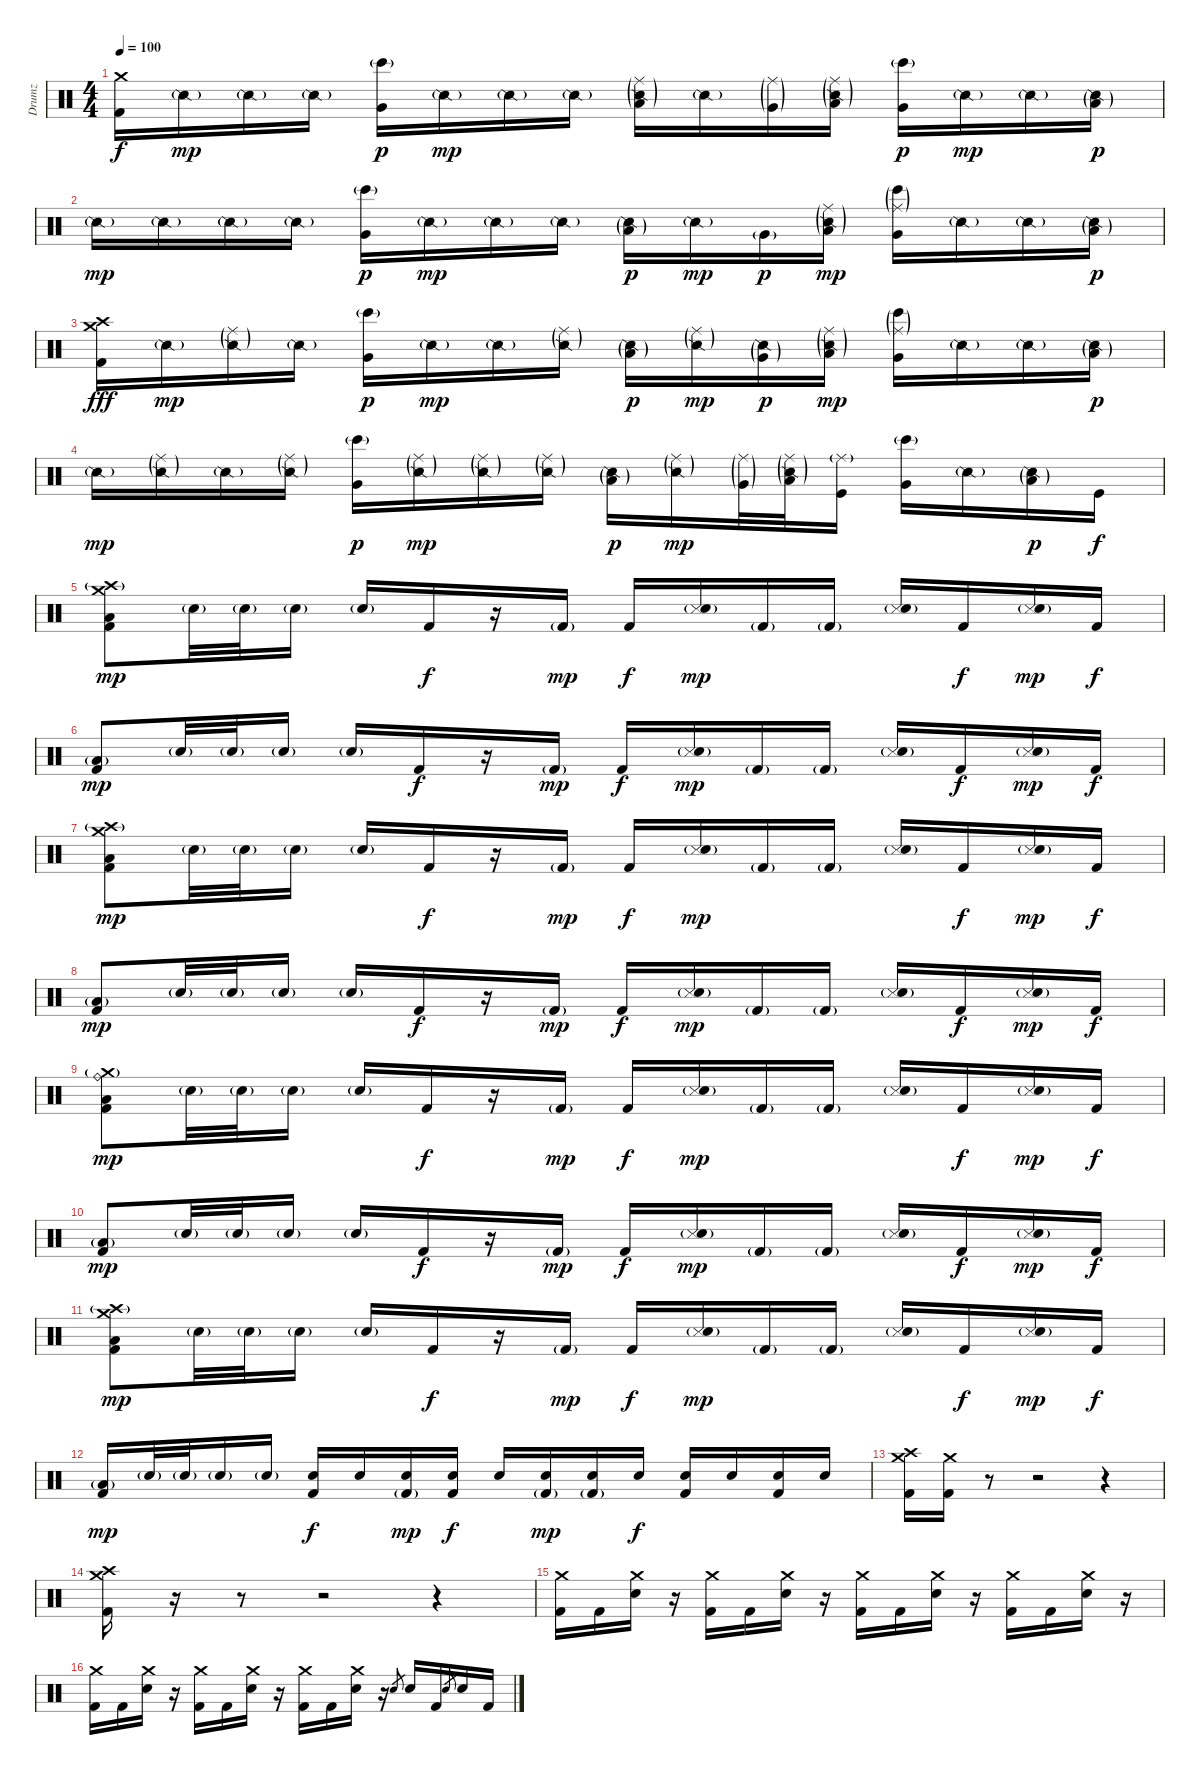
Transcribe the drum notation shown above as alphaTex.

\track ("Drumz" "Drumz") {instrument percussion}
\staff {score}
\articulation defaults
\ts (4 4)
\tempo 100
\clef neutral
\ks c
("Crash medium (hit)" "Kick (hit) 2").16{dy f} "Snare (side stick) 2"{g}.16{dy mp} "Snare (side stick) 2"{g}.16 "Snare (side stick) 2"{g}.16 ("Bongo High (hit)"{g} "Very Low Tom (hit)").16{dy p} "Snare (side stick) 2"{g}.16{dy mp} "Snare (side stick) 2"{g}.16 "Snare (side stick) 2"{g}.16 ("Snare (side stick) 2"{g} "Low Floor Tom (hit)"{g} "Ride (middle)"{g}).16 "Snare (side stick) 2"{g}.16 ("Very Low Tom (hit)"{g} "Ride (middle)"{g}).16 ("Snare (side stick) 2"{g} "Low Floor Tom (hit)"{g} "Ride (middle)"{g}).16 ("Bongo High (hit)"{g} "Very Low Tom (hit)").16{dy p} "Snare (side stick) 2"{g}.16{dy mp} "Snare (side stick) 2"{g}.16 ("Snare (side stick) 2"{g} "Low Floor Tom (hit)"{g}).16{dy p} |
"Snare (side stick) 2"{g}.16{dy mp} "Snare (side stick) 2"{g}.16 "Snare (side stick) 2"{g}.16 "Snare (side stick) 2"{g}.16 ("Bongo High (hit)"{g} "Very Low Tom (hit)").16{dy p} "Snare (side stick) 2"{g}.16{dy mp} "Snare (side stick) 2"{g}.16 "Snare (side stick) 2"{g}.16 ("Snare (side stick) 2"{g} "Low Floor Tom (hit)"{g}).16{dy p} "Snare (side stick) 2"{g}.16{dy mp} "Very Low Tom (hit)"{g}.16{dy p} ("Snare (side stick) 2"{g} "Low Floor Tom (hit)"{g} "Ride (middle)"{g}).16{dy mp} ("Bongo High (hit)"{g} "Very Low Tom (hit)" "Ride (middle)"{g}).16 "Snare (side stick) 2"{g}.16 "Snare (side stick) 2"{g}.16 ("Snare (side stick) 2"{g} "Low Floor Tom (hit)"{g}).16{dy p} |
("Crash medium (hit)" "Crash high (hit)" "Kick (hit) 2").16{dy fff} "Snare (side stick) 2"{g}.16{dy mp} ("Snare (side stick) 2"{g} "Ride (middle)"{g}).16 "Snare (side stick) 2"{g}.16 ("Bongo High (hit)"{g} "Very Low Tom (hit)").16{dy p} "Snare (side stick) 2"{g}.16{dy mp} "Snare (side stick) 2"{g}.16 ("Snare (side stick) 2"{g} "Ride (middle)"{g}).16 ("Snare (side stick) 2"{g} "Low Floor Tom (hit)"{g}).16{dy p} ("Snare (side stick) 2"{g} "Ride (middle)"{g}).16{dy mp} ("Snare (side stick) 2"{g} "Very Low Tom (hit)"{g}).16{dy p} ("Snare (side stick) 2"{g} "Low Floor Tom (hit)"{g} "Ride (middle)"{g}).16{dy mp} ("Bongo High (hit)"{g} "Very Low Tom (hit)" "Ride (middle)"{g}).16 "Snare (side stick) 2"{g}.16 "Snare (side stick) 2"{g}.16 ("Snare (side stick) 2"{g} "Low Floor Tom (hit)"{g}).16{dy p} |
"Snare (side stick) 2"{g}.16{dy mp} ("Snare (side stick) 2"{g} "Ride (middle)"{g}).16 "Snare (side stick) 2"{g}.16 ("Snare (side stick) 2"{g} "Ride (middle)"{g}).16 ("Bongo High (hit)"{g} "Very Low Tom (hit)").16{dy p} ("Snare (side stick) 2"{g} "Ride (middle)"{g}).16{dy mp} ("Snare (side stick) 2"{g} "Ride (middle)"{g}).16 ("Snare (side stick) 2"{g} "Ride (middle)"{g}).16 ("Snare (side stick) 2"{g} "Low Floor Tom (hit)"{g}).16{dy p} ("Snare (side stick) 2"{g} "Ride (middle)"{g}).16{dy mp} ("Very Low Tom (hit)"{g} "Ride (middle)"{g}).32 ("Snare (side stick) 2"{g} "Low Floor Tom (hit)"{g} "Ride (middle)"{g}).32 ("Kick (hit)" "Ride (middle)"{g}).16 ("Bongo High (hit)"{g} "Very Low Tom (hit)").16 "Snare (side stick) 2"{g}.16 ("Snare (side stick) 2"{g} "Low Floor Tom (hit)"{g}).16{dy p} "Kick (hit)".16{dy f} |
("Crash medium (hit)" "Crash high (hit)"{g} "Low Floor Tom (hit)" "Kick (hit) 2").8{dy mp} "Electric Snare (hit)"{g}.32 "Electric Snare (hit)"{g}.32 "Electric Snare (hit)"{g}.16 "Electric Snare (hit)"{g}.16 "Kick (hit) 2".16{dy f} r.16 "Kick (hit) 2"{g}.16{dy mp} "Kick (hit) 2".16{dy f} ("Metronome (hit)"{g} "Electric Snare (hit)"{g}).16{dy mp} "Kick (hit) 2"{g}.16 "Kick (hit) 2"{g}.16 ("Metronome (hit)"{g} "Electric Snare (hit)"{g}).16 "Kick (hit) 2".16{dy f} ("Metronome (hit)"{g} "Electric Snare (hit)"{g}).16{dy mp} "Kick (hit) 2".16{dy f} |
("Low Floor Tom (hit)"{g} "Kick (hit) 2").8{dy mp} "Electric Snare (hit)"{g}.32 "Electric Snare (hit)"{g}.32 "Electric Snare (hit)"{g}.16 "Electric Snare (hit)"{g}.16 "Kick (hit) 2".16{dy f} r.16 "Kick (hit) 2"{g}.16{dy mp} "Kick (hit) 2".16{dy f} ("Metronome (hit)"{g} "Electric Snare (hit)"{g}).16{dy mp} "Kick (hit) 2"{g}.16 "Kick (hit) 2"{g}.16 ("Metronome (hit)"{g} "Electric Snare (hit)"{g}).16 "Kick (hit) 2".16{dy f} ("Metronome (hit)"{g} "Electric Snare (hit)"{g}).16{dy mp} "Kick (hit) 2".16{dy f} |
("Crash medium (hit)" "Crash high (hit)"{g} "Low Floor Tom (hit)" "Kick (hit) 2").8{dy mp} "Electric Snare (hit)"{g}.32 "Electric Snare (hit)"{g}.32 "Electric Snare (hit)"{g}.16 "Electric Snare (hit)"{g}.16 "Kick (hit) 2".16{dy f} r.16 "Kick (hit) 2"{g}.16{dy mp} "Kick (hit) 2".16{dy f} ("Metronome (hit)"{g} "Electric Snare (hit)"{g}).16{dy mp} "Kick (hit) 2"{g}.16 "Kick (hit) 2"{g}.16 ("Metronome (hit)"{g} "Electric Snare (hit)"{g}).16 "Kick (hit) 2".16{dy f} ("Metronome (hit)"{g} "Electric Snare (hit)"{g}).16{dy mp} "Kick (hit) 2".16{dy f} |
("Low Floor Tom (hit)"{g} "Kick (hit) 2").8{dy mp} "Electric Snare (hit)"{g}.32 "Electric Snare (hit)"{g}.32 "Electric Snare (hit)"{g}.16 "Electric Snare (hit)"{g}.16 "Kick (hit) 2".16{dy f} r.16 "Kick (hit) 2"{g}.16{dy mp} "Kick (hit) 2".16{dy f} ("Metronome (hit)"{g} "Electric Snare (hit)"{g}).16{dy mp} "Kick (hit) 2"{g}.16 "Kick (hit) 2"{g}.16 ("Metronome (hit)"{g} "Electric Snare (hit)"{g}).16 "Kick (hit) 2".16{dy f} ("Metronome (hit)"{g} "Electric Snare (hit)"{g}).16{dy mp} "Kick (hit) 2".16{dy f} |
("Crash medium (hit)"{g} "Ride (bell)" "Low Floor Tom (hit)" "Kick (hit) 2").8{dy mp} "Electric Snare (hit)"{g}.32 "Electric Snare (hit)"{g}.32 "Electric Snare (hit)"{g}.16 "Electric Snare (hit)"{g}.16 "Kick (hit) 2".16{dy f} r.16 "Kick (hit) 2"{g}.16{dy mp} "Kick (hit) 2".16{dy f} ("Metronome (hit)"{g} "Electric Snare (hit)"{g}).16{dy mp} "Kick (hit) 2"{g}.16 "Kick (hit) 2"{g}.16 ("Metronome (hit)"{g} "Electric Snare (hit)"{g}).16 "Kick (hit) 2".16{dy f} ("Metronome (hit)"{g} "Electric Snare (hit)"{g}).16{dy mp} "Kick (hit) 2".16{dy f} |
("Low Floor Tom (hit)"{g} "Kick (hit) 2").8{dy mp} "Electric Snare (hit)"{g}.32 "Electric Snare (hit)"{g}.32 "Electric Snare (hit)"{g}.16 "Electric Snare (hit)"{g}.16 "Kick (hit) 2".16{dy f} r.16 "Kick (hit) 2"{g}.16{dy mp} "Kick (hit) 2".16{dy f} ("Metronome (hit)"{g} "Electric Snare (hit)"{g}).16{dy mp} "Kick (hit) 2"{g}.16 "Kick (hit) 2"{g}.16 ("Metronome (hit)"{g} "Electric Snare (hit)"{g}).16 "Kick (hit) 2".16{dy f} ("Metronome (hit)"{g} "Electric Snare (hit)"{g}).16{dy mp} "Kick (hit) 2".16{dy f} |
("Crash medium (hit)" "Crash high (hit)"{g} "Low Floor Tom (hit)" "Kick (hit) 2").8{dy mp} "Electric Snare (hit)"{g}.32 "Electric Snare (hit)"{g}.32 "Electric Snare (hit)"{g}.16 "Electric Snare (hit)"{g}.16 "Kick (hit) 2".16{dy f} r.16 "Kick (hit) 2"{g}.16{dy mp} "Kick (hit) 2".16{dy f} ("Metronome (hit)"{g} "Electric Snare (hit)"{g}).16{dy mp} "Kick (hit) 2"{g}.16 "Kick (hit) 2"{g}.16 ("Metronome (hit)"{g} "Electric Snare (hit)"{g}).16 "Kick (hit) 2".16{dy f} ("Metronome (hit)"{g} "Electric Snare (hit)"{g}).16{dy mp} "Kick (hit) 2".16{dy f} |
("Low Floor Tom (hit)"{g} "Kick (hit) 2").16{dy mp} "Electric Snare (hit)"{g}.32 "Electric Snare (hit)"{g}.32 "Electric Snare (hit)"{g}.16 "Electric Snare (hit)"{g}.16 ("Electric Snare (hit)" "Kick (hit) 2").16{dy f} "Electric Snare (hit)".16 ("Electric Snare (hit)" "Kick (hit) 2"{g}).16{dy mp} ("Electric Snare (hit)" "Kick (hit) 2").16{dy f} "Electric Snare (hit)".16 ("Electric Snare (hit)" "Kick (hit) 2"{g}).16{dy mp} ("Electric Snare (hit)" "Kick (hit) 2"{g}).16 "Electric Snare (hit)".16{dy f} ("Electric Snare (hit)" "Kick (hit) 2").16 "Electric Snare (hit)".16 ("Electric Snare (hit)" "Kick (hit) 2").16 "Electric Snare (hit)".16 |
("Crash medium (hit)" "Crash high (hit)" "Kick (hit) 2").16 ("Crash medium (hit)" "Kick (hit) 2").16 r.8 r.2 r.4 |
("Crash medium (hit)" "Crash high (hit)" "Kick (hit) 2").16 r.16 r.8 r.2 r.4 |
("Crash medium (hit)" "Kick (hit) 2").16 "Kick (hit) 2".16 ("Crash medium (hit)" "Electric Snare (hit)").16 r.16 ("Crash medium (hit)" "Kick (hit) 2").16 "Kick (hit) 2".16 ("Crash medium (hit)" "Electric Snare (hit)").16 r.16 ("Crash medium (hit)" "Kick (hit) 2").16 "Kick (hit) 2".16 ("Crash medium (hit)" "Electric Snare (hit)").16 r.16 ("Crash medium (hit)" "Kick (hit) 2").16 "Kick (hit) 2".16 ("Crash medium (hit)" "Electric Snare (hit)").16 r.16 |
("Crash medium (hit)" "Kick (hit) 2").16 "Kick (hit) 2".16 ("Crash medium (hit)" "Electric Snare (hit)").16 r.16 ("Crash medium (hit)" "Kick (hit) 2").16 "Kick (hit) 2".16 ("Crash medium (hit)" "Electric Snare (hit)").16 r.16 ("Crash medium (hit)" "Kick (hit) 2").16 "Kick (hit) 2".16 ("Crash medium (hit)" "Electric Snare (hit)").16 r.16 "Electric Snare (hit)".8{gr} "Electric Snare (hit)".16 "Kick (hit) 2".16 "Electric Snare (hit)".8{gr} "Electric Snare (hit)".16 "Kick (hit) 2".16
